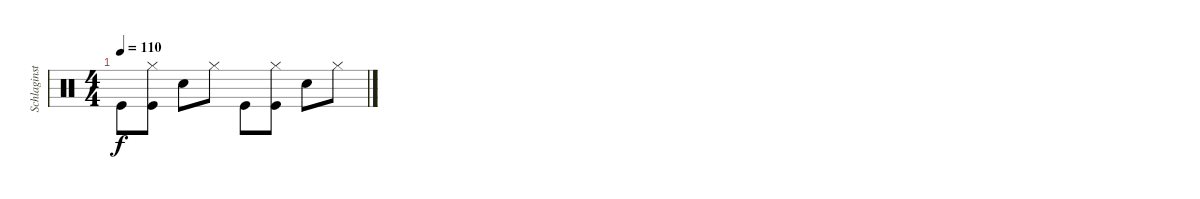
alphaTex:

\track ("Schlaginstrumente - Auswahl" "Schlaginst") {instrument percussion}
\staff {score}
\articulation defaults
\ts (4 4)
\tempo 110
\clef neutral
\ks c "Kick (hit)".8{dy f}
("Kick (hit)" "Hi-Hat (closed)").8 "Snare (hit) 2".8 "Hi-Hat (closed)".8 "Kick (hit)".8 ("Kick (hit)" "Hi-Hat (closed)").8 "Snare (hit) 2".8 "Hi-Hat (closed)".8
